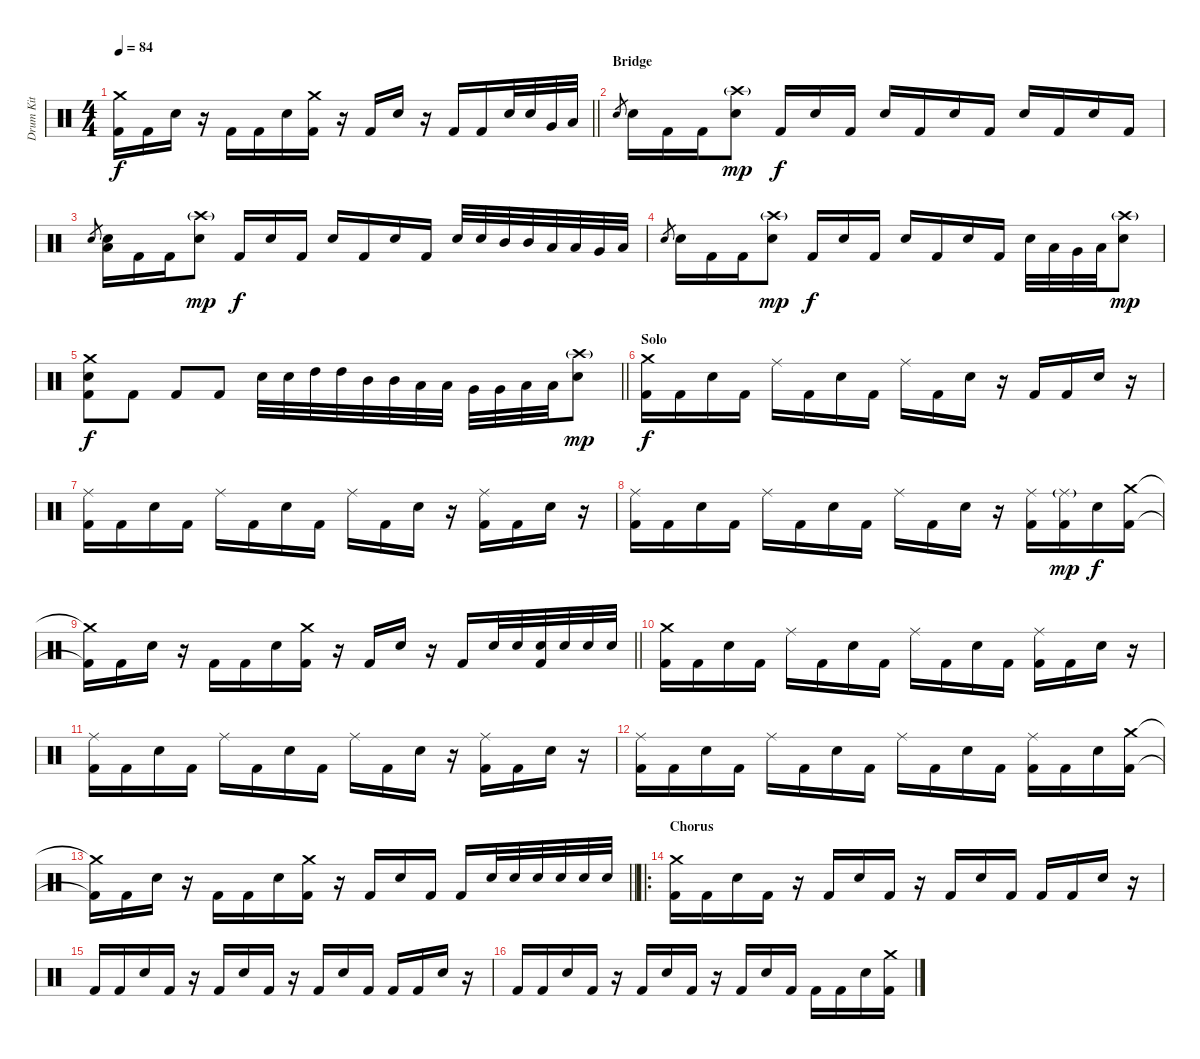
\track ("Drum Kit" "Drum Kit") {instrument percussion}
\staff {score}
\articulation defaults
\ts (4 4)
\tempo 84
\clef neutral
\barLineRight lightlight
\ks c
("Crash medium (hit)"{t} "Kick (hit) 2"{t}).16{dy f} "Kick (hit) 2".16 "Electric Snare (hit)".16 r.16 "Kick (hit) 2".16 "Kick (hit) 2".16 "Electric Snare (hit)".16 ("Crash medium (hit)" "Kick (hit) 2").16 r.16 "Kick (hit) 2".16 "Electric Snare (hit)".16 r.16 "Kick (hit) 2".16 "Kick (hit) 2".16 "Electric Snare (hit)".32 "Electric Snare (hit)".32 "Very Low Tom (hit)".32 "Low Floor Tom (hit)".32 |
\section ("" "Bridge")
"Electric Snare (hit)".8{gr} "Electric Snare (hit)".16 "Kick (hit) 2".16 "Kick (hit) 2".16 ("Crash high (hit)"{g} "Electric Snare (hit)").8{dy mp} "Kick (hit) 2".16{dy f} "Electric Snare (hit)".16 "Kick (hit) 2".16 "Electric Snare (hit)".16 "Kick (hit) 2".16 "Electric Snare (hit)".16 "Kick (hit) 2".16 "Electric Snare (hit)".16 "Kick (hit) 2".16 "Electric Snare (hit)".16 "Kick (hit) 2".16 |
"Electric Snare (hit)".8{gr} ("Electric Snare (hit)" "Low Floor Tom (hit)").16 "Kick (hit) 2".16 "Kick (hit) 2".16 ("Crash high (hit)"{g} "Electric Snare (hit)").8{dy mp} "Kick (hit) 2".16{dy f} "Electric Snare (hit)".16 "Kick (hit) 2".16 "Electric Snare (hit)".16 "Kick (hit) 2".16 "Electric Snare (hit)".16 "Kick (hit) 2".16 "Electric Snare (hit)".32 "Electric Snare (hit)".32 "Mid Tom (hit)".32 "Mid Tom (hit)".32 "Low Tom (hit)".32 "Low Tom (hit)".32 "Very Low Tom (hit)".32 "Low Floor Tom (hit)".32 |
"Electric Snare (hit)".8{gr} "Electric Snare (hit)".16 "Kick (hit) 2".16 "Kick (hit) 2".16 ("Crash high (hit)"{g} "Electric Snare (hit)").8{dy mp} "Kick (hit) 2".16{dy f} "Electric Snare (hit)".16 "Kick (hit) 2".16 "Electric Snare (hit)".16 "Kick (hit) 2".16 "Electric Snare (hit)".16 "Kick (hit) 2".16 "Electric Snare (hit)".32 "Low Tom (hit)".32 "Very Low Tom (hit)".32 "Low Floor Tom (hit)".32 ("Crash high (hit)"{g} "Electric Snare (hit)").8{dy mp} |
\barLineRight lightlight
("Crash medium (hit)" "Electric Snare (hit)" "Kick (hit) 2").8{dy f} "Kick (hit) 2".8 "Kick (hit) 2".8 "Kick (hit) 2".8 "Electric Snare (hit)".32 "Electric Snare (hit)".32 "High Tom (hit)".32 "High Tom (hit)".32 "Mid Tom (hit)".32 "Mid Tom (hit)".32 "Low Tom (hit)".32 "Low Tom (hit)".32 "Very Low Tom (hit)".32 "Very Low Tom (hit)".32 "Low Floor Tom (hit)".32 "Low Floor Tom (hit)".32 ("Crash high (hit)"{g} "Electric Snare (hit)").8{dy mp} |
\section ("" "Solo")
("Crash medium (hit)" "Kick (hit) 2").16{dy f} "Kick (hit) 2".16 "Electric Snare (hit)".16 "Kick (hit) 2".16 "Ride (middle)".16 "Kick (hit) 2".16 "Electric Snare (hit)".16 "Kick (hit) 2".16 "Ride (middle)".16 "Kick (hit) 2".16 "Electric Snare (hit)".16 r.16 "Kick (hit) 2".16 "Kick (hit) 2".16 "Electric Snare (hit)".16 r.16 |
("Ride (middle)" "Kick (hit) 2").16 "Kick (hit) 2".16 "Electric Snare (hit)".16 "Kick (hit) 2".16 "Ride (middle)".16 "Kick (hit) 2".16 "Electric Snare (hit)".16 "Kick (hit) 2".16 "Ride (middle)".16 "Kick (hit) 2".16 "Electric Snare (hit)".16 r.16 ("Ride (middle)" "Kick (hit) 2").16 "Kick (hit) 2".16 "Electric Snare (hit)".16 r.16 |
("Ride (middle)" "Kick (hit) 2").16 "Kick (hit) 2".16 "Electric Snare (hit)".16 "Kick (hit) 2".16 "Ride (middle)".16 "Kick (hit) 2".16 "Electric Snare (hit)".16 "Kick (hit) 2".16 "Ride (middle)".16 "Kick (hit) 2".16 "Electric Snare (hit)".16 r.16 ("Ride (middle)" "Kick (hit) 2").16 ("Ride (middle)"{g} "Kick (hit) 2").16{dy mp} "Electric Snare (hit)".16{dy f} ("Crash medium (hit)" "Kick (hit) 2").16 |
\barLineRight lightlight
("Crash medium (hit)"{t} "Kick (hit) 2"{t}).16 "Kick (hit) 2".16 "Electric Snare (hit)".16 r.16 "Kick (hit) 2".16 "Kick (hit) 2".16 "Electric Snare (hit)".16 ("Crash medium (hit)" "Kick (hit) 2").16 r.16 "Kick (hit) 2".16 "Electric Snare (hit)".16 r.16 "Kick (hit) 2".16 "Electric Snare (hit)".32 "Electric Snare (hit)".32 ("Electric Snare (hit)" "Kick (hit) 2").32 "Electric Snare (hit)".32 "Electric Snare (hit)".32 "Electric Snare (hit)".32 |
("Crash medium (hit)" "Kick (hit) 2").16 "Kick (hit) 2".16 "Electric Snare (hit)".16 "Kick (hit) 2".16 "Ride (middle)".16 "Kick (hit) 2".16 "Electric Snare (hit)".16 "Kick (hit) 2".16 "Ride (middle)".16 "Kick (hit) 2".16 "Electric Snare (hit)".16 "Kick (hit) 2".16 ("Ride (middle)" "Kick (hit) 2").16 "Kick (hit) 2".16 "Electric Snare (hit)".16 r.16 |
("Ride (middle)" "Kick (hit) 2").16 "Kick (hit) 2".16 "Electric Snare (hit)".16 "Kick (hit) 2".16 "Ride (middle)".16 "Kick (hit) 2".16 "Electric Snare (hit)".16 "Kick (hit) 2".16 "Ride (middle)".16 "Kick (hit) 2".16 "Electric Snare (hit)".16 r.16 ("Ride (middle)" "Kick (hit) 2").16 "Kick (hit) 2".16 "Electric Snare (hit)".16 r.16 |
("Ride (middle)" "Kick (hit) 2").16 "Kick (hit) 2".16 "Electric Snare (hit)".16 "Kick (hit) 2".16 "Ride (middle)".16 "Kick (hit) 2".16 "Electric Snare (hit)".16 "Kick (hit) 2".16 "Ride (middle)".16 "Kick (hit) 2".16 "Electric Snare (hit)".16 "Kick (hit) 2".16 ("Ride (middle)" "Kick (hit) 2").16 "Kick (hit) 2".16 "Electric Snare (hit)".16 ("Crash medium (hit)" "Kick (hit) 2").16 |
\barLineRight lightlight
("Crash medium (hit)"{t} "Kick (hit) 2"{t}).16 "Kick (hit) 2".16 "Electric Snare (hit)".16 r.16 "Kick (hit) 2".16 "Kick (hit) 2".16 "Electric Snare (hit)".16 ("Crash medium (hit)" "Kick (hit) 2").16 r.16 "Kick (hit) 2".16 "Electric Snare (hit)".16 "Kick (hit) 2".16 "Kick (hit) 2".16 "Electric Snare (hit)".32 "Electric Snare (hit)".32 "Electric Snare (hit)".32 "Electric Snare (hit)".32 "Electric Snare (hit)".32 "Electric Snare (hit)".32 |
\ro
\section ("" "Chorus")
("Crash medium (hit)" "Kick (hit) 2").16 "Kick (hit) 2".16 "Electric Snare (hit)".16 "Kick (hit) 2".16 r.16 "Kick (hit) 2".16 "Electric Snare (hit)".16 "Kick (hit) 2".16 r.16 "Kick (hit) 2".16 "Electric Snare (hit)".16 "Kick (hit) 2".16 "Kick (hit) 2".16 "Kick (hit) 2".16 "Electric Snare (hit)".16 r.16 |
"Kick (hit) 2".16 "Kick (hit) 2".16 "Electric Snare (hit)".16 "Kick (hit) 2".16 r.16 "Kick (hit) 2".16 "Electric Snare (hit)".16 "Kick (hit) 2".16 r.16 "Kick (hit) 2".16 "Electric Snare (hit)".16 "Kick (hit) 2".16 "Kick (hit) 2".16 "Kick (hit) 2".16 "Electric Snare (hit)".16 r.16 |
"Kick (hit) 2".16 "Kick (hit) 2".16 "Electric Snare (hit)".16 "Kick (hit) 2".16 r.16 "Kick (hit) 2".16 "Electric Snare (hit)".16 "Kick (hit) 2".16 r.16 "Kick (hit) 2".16 "Electric Snare (hit)".16 "Kick (hit) 2".16 "Kick (hit) 2".16 "Kick (hit) 2".16 "Electric Snare (hit)".16 ("Crash medium (hit)" "Kick (hit) 2").16
